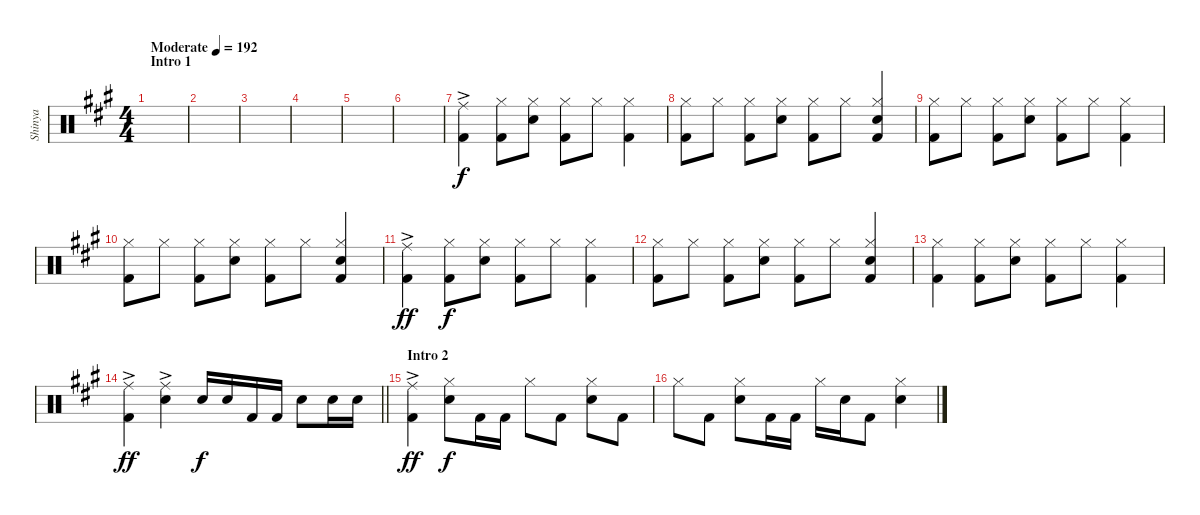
\track ("Shinya" "Shinya") {instrument percussion}
\staff {score}
\articulation defaults
\ts (4 4)
\section ("" "Intro 1")
\tempo (192 "Moderate")
\clef neutral
\ks a
|
|
|
|
|
|
("Ride (middle)"{ac} "Kick (hit) 2").4 ("Hi-Hat (closed)" "Kick (hit) 2").8{dy f} ("Hi-Hat (closed)" "Snare (hit) 2").8 ("Hi-Hat (closed)" "Kick (hit) 2").8 "Hi-Hat (closed)".8 ("Hi-Hat (closed)" "Kick (hit) 2").4 |
("Hi-Hat (closed)" "Kick (hit) 2").8 "Hi-Hat (closed)".8 ("Hi-Hat (closed)" "Kick (hit) 2").8 ("Hi-Hat (closed)" "Snare (hit) 2").8 ("Hi-Hat (closed)" "Kick (hit) 2").8 "Hi-Hat (closed)".8 ("Hi-Hat (closed)" "Snare (hit) 2" "Kick (hit) 2").4 |
("Hi-Hat (closed)" "Kick (hit) 2").8 "Hi-Hat (closed)".8 ("Hi-Hat (closed)" "Kick (hit) 2").8 ("Hi-Hat (closed)" "Snare (hit) 2").8 ("Hi-Hat (closed)" "Kick (hit) 2").8 "Hi-Hat (closed)".8 ("Hi-Hat (closed)" "Kick (hit) 2").4 |
("Hi-Hat (closed)" "Kick (hit) 2").8 "Hi-Hat (closed)".8 ("Hi-Hat (closed)" "Kick (hit) 2").8 ("Hi-Hat (closed)" "Snare (hit) 2").8 ("Hi-Hat (closed)" "Kick (hit) 2").8 "Hi-Hat (closed)".8 ("Hi-Hat (closed)" "Snare (hit) 2" "Kick (hit) 2").4 |
("Ride (middle)"{ac} "Kick (hit) 2").4{dy ff} ("Hi-Hat (closed)" "Kick (hit) 2").8{dy f} ("Hi-Hat (closed)" "Snare (hit) 2").8 ("Hi-Hat (closed)" "Kick (hit) 2").8 "Hi-Hat (closed)".8 ("Hi-Hat (closed)" "Kick (hit) 2").4 |
("Hi-Hat (closed)" "Kick (hit) 2").8 "Hi-Hat (closed)".8 ("Hi-Hat (closed)" "Kick (hit) 2").8 ("Hi-Hat (closed)" "Snare (hit) 2").8 ("Hi-Hat (closed)" "Kick (hit) 2").8 "Hi-Hat (closed)".8 ("Hi-Hat (closed)" "Snare (hit) 2" "Kick (hit) 2").4 |
("Hi-Hat (closed)" "Kick (hit) 2").4 ("Hi-Hat (closed)" "Kick (hit) 2").8 ("Hi-Hat (closed)" "Snare (hit) 2").8 ("Hi-Hat (closed)" "Kick (hit) 2").8 "Hi-Hat (closed)".8 ("Hi-Hat (closed)" "Kick (hit) 2").4 |
\barLineRight lightlight
("Ride (middle)"{ac} "Kick (hit) 2").4{dy ff} ("Ride (middle)"{ac} "Snare (hit) 2").4 "Snare (hit) 2".16{dy f} "Snare (hit) 2".16 "Kick (hit) 2".16 "Kick (hit) 2".16 "Snare (hit) 2".8 "Snare (hit) 2".16 "Snare (hit) 2".16 |
\section ("" "Intro 2")
("Ride (middle)"{ac} "Kick (hit) 2").4{dy ff} ("Hi-Hat (closed)" "Snare (hit) 2").8{dy f} "Kick (hit) 2".16 "Kick (hit) 2".16 "Hi-Hat (closed)".8 "Kick (hit) 2".8 ("Hi-Hat (closed)" "Snare (hit) 2").8 "Kick (hit) 2".8 |
"Hi-Hat (closed)".8 "Kick (hit) 2".8 ("Hi-Hat (closed)" "Snare (hit) 2").8 "Kick (hit) 2".16 "Kick (hit) 2".16 "Hi-Hat (closed)".16 "Snare (hit) 2".16 "Kick (hit) 2".8 ("Hi-Hat (closed)" "Snare (hit) 2").4
